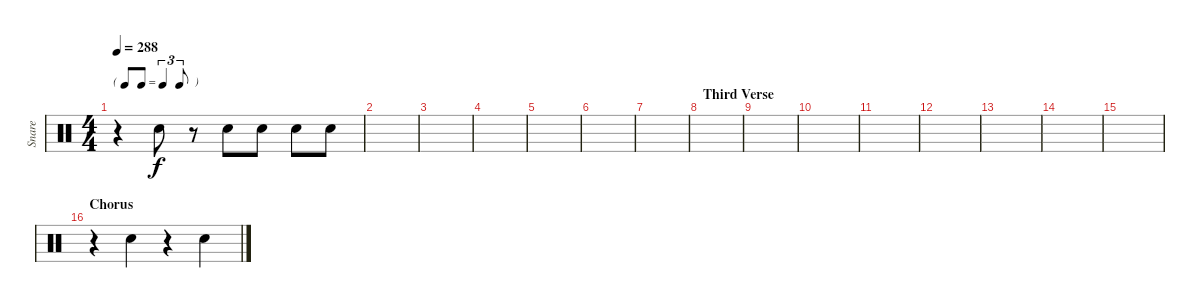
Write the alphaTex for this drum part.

\track ("Snare" "Snare") {instrument percussion}
\staff {score}
\articulation defaults
\ts (4 4)
\tf triplet8th
\tempo 288
\clef neutral
\ks c
r.4{dy f} "Snare (hit) 2".8 r.8 "Snare (hit) 2".8 "Snare (hit) 2".8 "Snare (hit) 2".8 "Snare (hit) 2".8 |
|
|
|
|
|
|
\section ("" "Third Verse")
|
|
|
|
|
|
|
|
\section ("" "Chorus")
r.4 "Snare (hit) 2".4 r.4 "Snare (hit) 2".4
